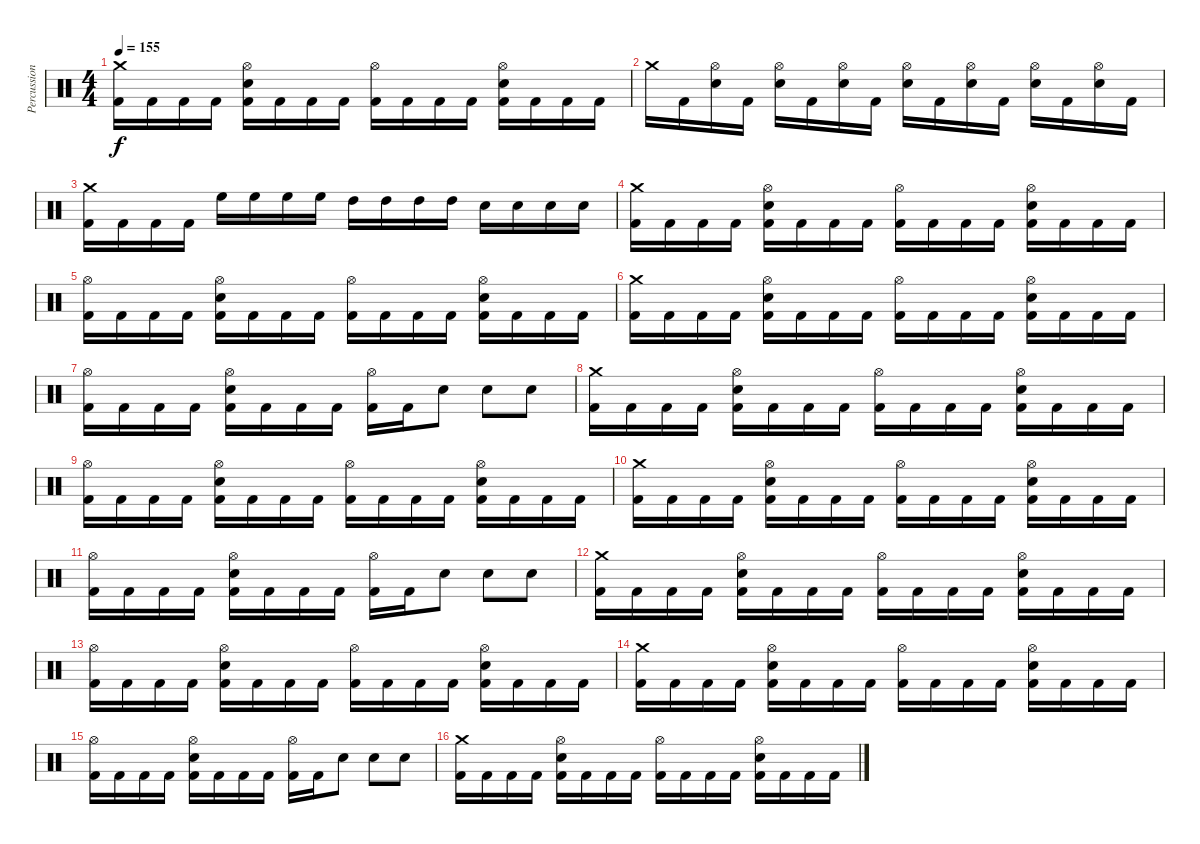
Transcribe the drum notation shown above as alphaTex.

\track ("Percussion" "Percussion") {instrument percussion}
\staff {score}
\articulation defaults
\ts (4 4)
\tempo 155
\clef neutral
\ks c
("Kick (hit) 2" "Crash medium (hit)").16{dy f} "Kick (hit) 2".16 "Kick (hit) 2".16 "Kick (hit) 2".16 ("Kick (hit) 2" "Snare (hit) 2" "Hi-Hat (open)").16 "Kick (hit) 2".16 "Kick (hit) 2".16 "Kick (hit) 2".16 ("Kick (hit) 2" "Hi-Hat (open)").16 "Kick (hit) 2".16 "Kick (hit) 2".16 "Kick (hit) 2".16 ("Kick (hit) 2" "Snare (hit) 2" "Hi-Hat (open)").16 "Kick (hit) 2".16 "Kick (hit) 2".16 "Kick (hit) 2".16 |
"Crash medium (hit)".16 "Kick (hit) 2".16 ("Snare (hit) 2" "Hi-Hat (open)").16 "Kick (hit) 2".16 ("Snare (hit) 2" "Hi-Hat (open)").16 "Kick (hit) 2".16 ("Snare (hit) 2" "Hi-Hat (open)").16 "Kick (hit) 2".16 ("Snare (hit) 2" "Hi-Hat (open)").16 "Kick (hit) 2".16 ("Snare (hit) 2" "Hi-Hat (open)").16 "Kick (hit) 2".16 ("Snare (hit) 2" "Hi-Hat (open)").16 "Kick (hit) 2".16 ("Snare (hit) 2" "Hi-Hat (open)").16 "Kick (hit) 2".16 |
("Kick (hit) 2" "Crash medium (hit)").16 "Kick (hit) 2".16 "Kick (hit) 2".16 "Kick (hit) 2".16 "High Floor Tom (hit)".16 "High Floor Tom (hit)".16 "High Floor Tom (hit)".16 "High Floor Tom (hit)".16 "High Tom (hit)".16 "High Tom (hit)".16 "High Tom (hit)".16 "High Tom (hit)".16 "Snare (hit) 2".16 "Snare (hit) 2".16 "Snare (hit) 2".16 "Snare (hit) 2".16 |
("Kick (hit) 2" "Crash medium (hit)").16 "Kick (hit) 2".16 "Kick (hit) 2".16 "Kick (hit) 2".16 ("Kick (hit) 2" "Snare (hit) 2" "Hi-Hat (open)").16 "Kick (hit) 2".16 "Kick (hit) 2".16 "Kick (hit) 2".16 ("Kick (hit) 2" "Hi-Hat (open)").16 "Kick (hit) 2".16 "Kick (hit) 2".16 "Kick (hit) 2".16 ("Kick (hit) 2" "Snare (hit) 2" "Hi-Hat (open)").16 "Kick (hit) 2".16 "Kick (hit) 2".16 "Kick (hit) 2".16 |
("Kick (hit) 2" "Hi-Hat (open)").16 "Kick (hit) 2".16 "Kick (hit) 2".16 "Kick (hit) 2".16 ("Kick (hit) 2" "Snare (hit) 2" "Hi-Hat (open)").16 "Kick (hit) 2".16 "Kick (hit) 2".16 "Kick (hit) 2".16 ("Kick (hit) 2" "Hi-Hat (open)").16 "Kick (hit) 2".16 "Kick (hit) 2".16 "Kick (hit) 2".16 ("Kick (hit) 2" "Snare (hit) 2" "Hi-Hat (open)").16 "Kick (hit) 2".16 "Kick (hit) 2".16 "Kick (hit) 2".16 |
("Kick (hit) 2" "Crash medium (hit)").16 "Kick (hit) 2".16 "Kick (hit) 2".16 "Kick (hit) 2".16 ("Kick (hit) 2" "Snare (hit) 2" "Hi-Hat (open)").16 "Kick (hit) 2".16 "Kick (hit) 2".16 "Kick (hit) 2".16 ("Kick (hit) 2" "Hi-Hat (open)").16 "Kick (hit) 2".16 "Kick (hit) 2".16 "Kick (hit) 2".16 ("Kick (hit) 2" "Snare (hit) 2" "Hi-Hat (open)").16 "Kick (hit) 2".16 "Kick (hit) 2".16 "Kick (hit) 2".16 |
("Kick (hit) 2" "Hi-Hat (open)").16 "Kick (hit) 2".16 "Kick (hit) 2".16 "Kick (hit) 2".16 ("Kick (hit) 2" "Snare (hit) 2" "Hi-Hat (open)").16 "Kick (hit) 2".16 "Kick (hit) 2".16 "Kick (hit) 2".16 ("Kick (hit) 2" "Hi-Hat (open)").16 "Kick (hit) 2".16 "Snare (hit) 2".8 "Snare (hit) 2".8 "Snare (hit) 2".8 |
("Kick (hit) 2" "Crash medium (hit)").16 "Kick (hit) 2".16 "Kick (hit) 2".16 "Kick (hit) 2".16 ("Kick (hit) 2" "Snare (hit) 2" "Hi-Hat (open)").16 "Kick (hit) 2".16 "Kick (hit) 2".16 "Kick (hit) 2".16 ("Kick (hit) 2" "Hi-Hat (open)").16 "Kick (hit) 2".16 "Kick (hit) 2".16 "Kick (hit) 2".16 ("Kick (hit) 2" "Snare (hit) 2" "Hi-Hat (open)").16 "Kick (hit) 2".16 "Kick (hit) 2".16 "Kick (hit) 2".16 |
("Kick (hit) 2" "Hi-Hat (open)").16 "Kick (hit) 2".16 "Kick (hit) 2".16 "Kick (hit) 2".16 ("Kick (hit) 2" "Snare (hit) 2" "Hi-Hat (open)").16 "Kick (hit) 2".16 "Kick (hit) 2".16 "Kick (hit) 2".16 ("Kick (hit) 2" "Hi-Hat (open)").16 "Kick (hit) 2".16 "Kick (hit) 2".16 "Kick (hit) 2".16 ("Kick (hit) 2" "Snare (hit) 2" "Hi-Hat (open)").16 "Kick (hit) 2".16 "Kick (hit) 2".16 "Kick (hit) 2".16 |
("Kick (hit) 2" "Crash medium (hit)").16 "Kick (hit) 2".16 "Kick (hit) 2".16 "Kick (hit) 2".16 ("Kick (hit) 2" "Snare (hit) 2" "Hi-Hat (open)").16 "Kick (hit) 2".16 "Kick (hit) 2".16 "Kick (hit) 2".16 ("Kick (hit) 2" "Hi-Hat (open)").16 "Kick (hit) 2".16 "Kick (hit) 2".16 "Kick (hit) 2".16 ("Kick (hit) 2" "Snare (hit) 2" "Hi-Hat (open)").16 "Kick (hit) 2".16 "Kick (hit) 2".16 "Kick (hit) 2".16 |
("Kick (hit) 2" "Hi-Hat (open)").16 "Kick (hit) 2".16 "Kick (hit) 2".16 "Kick (hit) 2".16 ("Kick (hit) 2" "Snare (hit) 2" "Hi-Hat (open)").16 "Kick (hit) 2".16 "Kick (hit) 2".16 "Kick (hit) 2".16 ("Kick (hit) 2" "Hi-Hat (open)").16 "Kick (hit) 2".16 "Snare (hit) 2".8 "Snare (hit) 2".8 "Snare (hit) 2".8 |
("Kick (hit) 2" "Crash medium (hit)").16 "Kick (hit) 2".16 "Kick (hit) 2".16 "Kick (hit) 2".16 ("Kick (hit) 2" "Snare (hit) 2" "Hi-Hat (open)").16 "Kick (hit) 2".16 "Kick (hit) 2".16 "Kick (hit) 2".16 ("Kick (hit) 2" "Hi-Hat (open)").16 "Kick (hit) 2".16 "Kick (hit) 2".16 "Kick (hit) 2".16 ("Kick (hit) 2" "Snare (hit) 2" "Hi-Hat (open)").16 "Kick (hit) 2".16 "Kick (hit) 2".16 "Kick (hit) 2".16 |
("Kick (hit) 2" "Hi-Hat (open)").16 "Kick (hit) 2".16 "Kick (hit) 2".16 "Kick (hit) 2".16 ("Kick (hit) 2" "Snare (hit) 2" "Hi-Hat (open)").16 "Kick (hit) 2".16 "Kick (hit) 2".16 "Kick (hit) 2".16 ("Kick (hit) 2" "Hi-Hat (open)").16 "Kick (hit) 2".16 "Kick (hit) 2".16 "Kick (hit) 2".16 ("Kick (hit) 2" "Snare (hit) 2" "Hi-Hat (open)").16 "Kick (hit) 2".16 "Kick (hit) 2".16 "Kick (hit) 2".16 |
("Kick (hit) 2" "Crash medium (hit)").16 "Kick (hit) 2".16 "Kick (hit) 2".16 "Kick (hit) 2".16 ("Kick (hit) 2" "Snare (hit) 2" "Hi-Hat (open)").16 "Kick (hit) 2".16 "Kick (hit) 2".16 "Kick (hit) 2".16 ("Kick (hit) 2" "Hi-Hat (open)").16 "Kick (hit) 2".16 "Kick (hit) 2".16 "Kick (hit) 2".16 ("Kick (hit) 2" "Snare (hit) 2" "Hi-Hat (open)").16 "Kick (hit) 2".16 "Kick (hit) 2".16 "Kick (hit) 2".16 |
("Kick (hit) 2" "Hi-Hat (open)").16 "Kick (hit) 2".16 "Kick (hit) 2".16 "Kick (hit) 2".16 ("Kick (hit) 2" "Snare (hit) 2" "Hi-Hat (open)").16 "Kick (hit) 2".16 "Kick (hit) 2".16 "Kick (hit) 2".16 ("Kick (hit) 2" "Hi-Hat (open)").16 "Kick (hit) 2".16 "Snare (hit) 2".8 "Snare (hit) 2".8 "Snare (hit) 2".8 |
("Kick (hit) 2" "Crash medium (hit)").16 "Kick (hit) 2".16 "Kick (hit) 2".16 "Kick (hit) 2".16 ("Kick (hit) 2" "Snare (hit) 2" "Hi-Hat (open)").16 "Kick (hit) 2".16 "Kick (hit) 2".16 "Kick (hit) 2".16 ("Kick (hit) 2" "Hi-Hat (open)").16 "Kick (hit) 2".16 "Kick (hit) 2".16 "Kick (hit) 2".16 ("Kick (hit) 2" "Snare (hit) 2" "Hi-Hat (open)").16 "Kick (hit) 2".16 "Kick (hit) 2".16 "Kick (hit) 2".16
